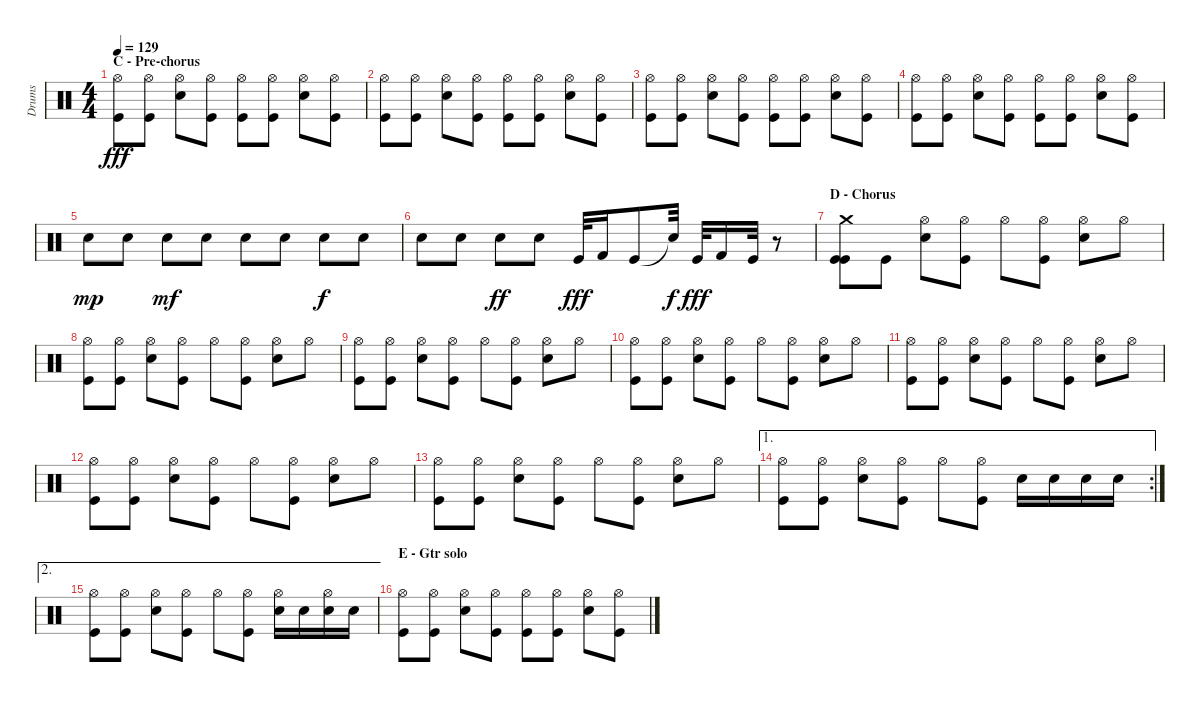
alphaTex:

\track ("Drums" "Drums") {instrument percussion}
\staff {score}
\articulation defaults
\ts (4 4)
\section ("" "C - Pre-chorus")
\tempo 129
\clef neutral
\ks c
("Kick (hit)" "Hi-Hat (open)").8{dy fff} ("Kick (hit)" "Hi-Hat (open)").8 ("Snare (hit) 2" "Hi-Hat (open)").8 ("Kick (hit)" "Hi-Hat (open)").8 ("Kick (hit)" "Hi-Hat (open)").8 ("Kick (hit)" "Hi-Hat (open)").8 ("Snare (hit) 2" "Hi-Hat (open)").8 ("Kick (hit)" "Hi-Hat (open)").8 |
("Kick (hit)" "Hi-Hat (open)").8 ("Kick (hit)" "Hi-Hat (open)").8 ("Snare (hit) 2" "Hi-Hat (open)").8 ("Kick (hit)" "Hi-Hat (open)").8 ("Kick (hit)" "Hi-Hat (open)").8 ("Kick (hit)" "Hi-Hat (open)").8 ("Snare (hit) 2" "Hi-Hat (open)").8 ("Kick (hit)" "Hi-Hat (open)").8 |
("Kick (hit)" "Hi-Hat (open)").8 ("Kick (hit)" "Hi-Hat (open)").8 ("Snare (hit) 2" "Hi-Hat (open)").8 ("Kick (hit)" "Hi-Hat (open)").8 ("Kick (hit)" "Hi-Hat (open)").8 ("Kick (hit)" "Hi-Hat (open)").8 ("Snare (hit) 2" "Hi-Hat (open)").8 ("Kick (hit)" "Hi-Hat (open)").8 |
("Kick (hit)" "Hi-Hat (open)").8 ("Kick (hit)" "Hi-Hat (open)").8 ("Snare (hit) 2" "Hi-Hat (open)").8 ("Kick (hit)" "Hi-Hat (open)").8 ("Kick (hit)" "Hi-Hat (open)").8 ("Kick (hit)" "Hi-Hat (open)").8 ("Snare (hit) 2" "Hi-Hat (open)").8 ("Kick (hit)" "Hi-Hat (open)").8 |
"Snare (hit) 2".8{dy mp} "Snare (hit) 2".8 "Snare (hit) 2".8{dy mf} "Snare (hit) 2".8 "Snare (hit) 2".8 "Snare (hit) 2".8 "Snare (hit) 2".8{dy f} "Snare (hit) 2".8 |
"Snare (hit) 2".8 "Snare (hit) 2".8 "Snare (hit) 2".8{dy ff} "Snare (hit) 2".8 "Kick (hit)".32{dy fff} "Kick (hit) 2".16 "Kick (hit)".8 "Snare (hit)"{t}.32{dy f} "Kick (hit)".32{dy fff} "Kick (hit) 2".16 "Kick (hit)".32 r.8 |
\section ("" "D - Chorus")
("Kick (hit)" "Crash medium (hit)" "Kick (hit)").8 "Kick (hit)".8 ("Snare (hit) 2" "Hi-Hat (open)").8 ("Kick (hit)" "Hi-Hat (open)").8 "Hi-Hat (open)".8 ("Kick (hit)" "Hi-Hat (open)").8 ("Snare (hit) 2" "Hi-Hat (open)").8 "Hi-Hat (open)".8 |
("Hi-Hat (open)" "Kick (hit)").8 ("Hi-Hat (open)" "Kick (hit)").8 ("Snare (hit) 2" "Hi-Hat (open)").8 ("Kick (hit)" "Hi-Hat (open)").8 "Hi-Hat (open)".8 ("Kick (hit)" "Hi-Hat (open)").8 ("Snare (hit) 2" "Hi-Hat (open)").8 "Hi-Hat (open)".8 |
("Hi-Hat (open)" "Kick (hit)").8 ("Hi-Hat (open)" "Kick (hit)").8 ("Snare (hit) 2" "Hi-Hat (open)").8 ("Kick (hit)" "Hi-Hat (open)").8 "Hi-Hat (open)".8 ("Kick (hit)" "Hi-Hat (open)").8 ("Snare (hit) 2" "Hi-Hat (open)").8 "Hi-Hat (open)".8 |
("Hi-Hat (open)" "Kick (hit)").8 ("Hi-Hat (open)" "Kick (hit)").8 ("Snare (hit) 2" "Hi-Hat (open)").8 ("Kick (hit)" "Hi-Hat (open)").8 "Hi-Hat (open)".8 ("Kick (hit)" "Hi-Hat (open)").8 ("Snare (hit) 2" "Hi-Hat (open)").8 "Hi-Hat (open)".8 |
("Hi-Hat (open)" "Kick (hit)").8 ("Hi-Hat (open)" "Kick (hit)").8 ("Snare (hit) 2" "Hi-Hat (open)").8 ("Kick (hit)" "Hi-Hat (open)").8 "Hi-Hat (open)".8 ("Kick (hit)" "Hi-Hat (open)").8 ("Snare (hit) 2" "Hi-Hat (open)").8 "Hi-Hat (open)".8 |
("Hi-Hat (open)" "Kick (hit)").8 ("Hi-Hat (open)" "Kick (hit)").8 ("Snare (hit) 2" "Hi-Hat (open)").8 ("Kick (hit)" "Hi-Hat (open)").8 "Hi-Hat (open)".8 ("Kick (hit)" "Hi-Hat (open)").8 ("Snare (hit) 2" "Hi-Hat (open)").8 "Hi-Hat (open)".8 |
("Hi-Hat (open)" "Kick (hit)").8 ("Hi-Hat (open)" "Kick (hit)").8 ("Snare (hit) 2" "Hi-Hat (open)").8 ("Kick (hit)" "Hi-Hat (open)").8 "Hi-Hat (open)".8 ("Kick (hit)" "Hi-Hat (open)").8 ("Snare (hit) 2" "Hi-Hat (open)").8 "Hi-Hat (open)".8 |
\ae 1
\rc 2
("Hi-Hat (open)" "Kick (hit)").8 ("Hi-Hat (open)" "Kick (hit)").8 ("Snare (hit) 2" "Hi-Hat (open)").8 ("Kick (hit)" "Hi-Hat (open)").8 "Hi-Hat (open)".8 ("Kick (hit)" "Hi-Hat (open)").8 "Snare (hit) 2".16 "Snare (hit) 2".16 "Snare (hit) 2".16 "Snare (hit) 2".16 |
\ae 2
("Hi-Hat (open)" "Kick (hit)").8 ("Hi-Hat (open)" "Kick (hit)").8 ("Snare (hit) 2" "Hi-Hat (open)").8 ("Kick (hit)" "Hi-Hat (open)").8 "Hi-Hat (open)".8 ("Kick (hit)" "Hi-Hat (open)").8 ("Snare (hit) 2" "Hi-Hat (open)").16 "Snare (hit) 2".16 ("Snare (hit) 2" "Hi-Hat (open)").16 "Snare (hit) 2".16 |
\section ("" "E - Gtr solo")
("Kick (hit)" "Hi-Hat (open)").8 ("Kick (hit)" "Hi-Hat (open)").8 ("Snare (hit) 2" "Hi-Hat (open)").8 ("Kick (hit)" "Hi-Hat (open)").8 ("Kick (hit)" "Hi-Hat (open)").8 ("Kick (hit)" "Hi-Hat (open)").8 ("Snare (hit) 2" "Hi-Hat (open)").8 ("Kick (hit)" "Hi-Hat (open)").8
